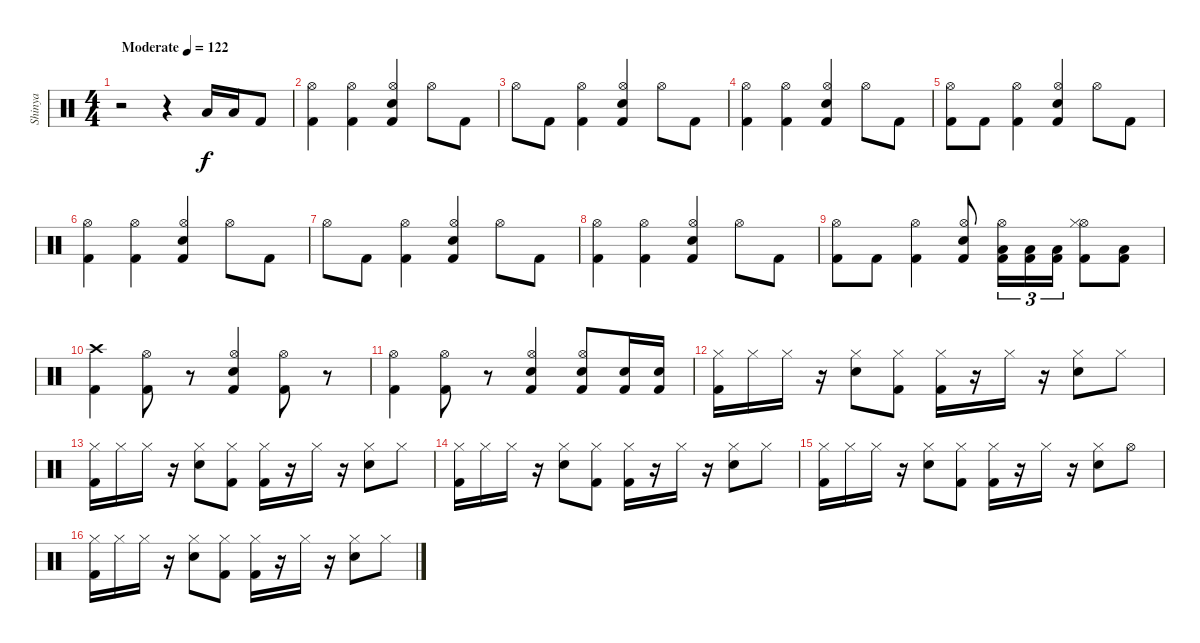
\track ("Shinya" "Shinya") {instrument percussion}
\staff {score}
\articulation defaults
\ts (4 4)
\tempo (122 "Moderate")
\clef neutral
\ks c
r.2{dy f} r.4 "Low Tom (hit)".16 "Low Floor Tom (hit)".16 "Kick (hit) 2".8 |
("Hi-Hat (open)" "Kick (hit) 2").4 ("Hi-Hat (open)" "Kick (hit) 2").4 ("Hi-Hat (open)" "Electric Snare (hit)" "Kick (hit) 2").4 "Hi-Hat (open)".8 "Kick (hit) 2".8 |
"Hi-Hat (open)".8 "Kick (hit) 2".8 ("Hi-Hat (open)" "Kick (hit) 2").4 ("Hi-Hat (open)" "Electric Snare (hit)" "Kick (hit) 2").4 "Hi-Hat (open)".8 "Kick (hit) 2".8 |
("Hi-Hat (open)" "Kick (hit) 2").4 ("Hi-Hat (open)" "Kick (hit) 2").4 ("Hi-Hat (open)" "Electric Snare (hit)" "Kick (hit) 2").4 "Hi-Hat (open)".8 "Kick (hit) 2".8 |
("Hi-Hat (open)" "Kick (hit) 2").8 "Kick (hit) 2".8 ("Hi-Hat (open)" "Kick (hit) 2").4 ("Hi-Hat (open)" "Electric Snare (hit)" "Kick (hit) 2").4 "Hi-Hat (open)".8 "Kick (hit) 2".8 |
("Hi-Hat (open)" "Kick (hit) 2").4 ("Hi-Hat (open)" "Kick (hit) 2").4 ("Hi-Hat (open)" "Electric Snare (hit)" "Kick (hit) 2").4 "Hi-Hat (open)".8 "Kick (hit) 2".8 |
"Hi-Hat (open)".8 "Kick (hit) 2".8 ("Hi-Hat (open)" "Kick (hit) 2").4 ("Hi-Hat (open)" "Electric Snare (hit)" "Kick (hit) 2").4 "Hi-Hat (open)".8 "Kick (hit) 2".8 |
("Hi-Hat (open)" "Kick (hit) 2").4 ("Hi-Hat (open)" "Kick (hit) 2").4 ("Hi-Hat (open)" "Electric Snare (hit)" "Kick (hit) 2").4 "Hi-Hat (open)".8 "Kick (hit) 2".8 |
("Hi-Hat (open)" "Kick (hit) 2").8 "Kick (hit) 2".8 ("Hi-Hat (open)" "Kick (hit) 2").4 ("Hi-Hat (open)" "Electric Snare (hit)" "Kick (hit) 2").8 ("Hi-Hat (open)" "Low Tom (hit)" "Kick (hit) 2").16{tu (3 2)} ("Low Tom (hit)" "Kick (hit) 2").16{tu (3 2)} ("Low Tom (hit)" "Kick (hit) 2").16{tu (3 2)} ("Hi-Hat (open)" "Hi-Hat (closed)" "Kick (hit) 2").8 ("Low Floor Tom (hit)" "Kick (hit) 2").8 |
("Crash high (hit)" "Kick (hit) 2").4 ("Hi-Hat (open)" "Kick (hit) 2").8 r.8 ("Hi-Hat (open)" "Electric Snare (hit)" "Kick (hit) 2").4 ("Hi-Hat (open)" "Kick (hit) 2").8 r.8 |
("Hi-Hat (open)" "Kick (hit) 2").4 ("Hi-Hat (open)" "Kick (hit) 2").8 r.8 ("Hi-Hat (open)" "Electric Snare (hit)" "Kick (hit) 2").4 ("Hi-Hat (open)" "Electric Snare (hit)" "Kick (hit) 2").8 ("Electric Snare (hit)" "Kick (hit) 2").16 ("Electric Snare (hit)" "Kick (hit) 2").16 |
("Hi-Hat (closed)" "Kick (hit) 2").16 "Hi-Hat (closed)".16 "Hi-Hat (closed)".16 r.16 ("Hi-Hat (closed)" "Electric Snare (hit)").8 ("Hi-Hat (closed)" "Kick (hit) 2").8 ("Hi-Hat (closed)" "Kick (hit) 2").16 r.16 "Hi-Hat (closed)".16 r.16 ("Hi-Hat (closed)" "Electric Snare (hit)").8 "Hi-Hat (closed)".8 |
("Hi-Hat (closed)" "Kick (hit) 2").16 "Hi-Hat (closed)".16 "Hi-Hat (closed)".16 r.16 ("Hi-Hat (closed)" "Electric Snare (hit)").8 ("Hi-Hat (closed)" "Kick (hit) 2").8 ("Hi-Hat (closed)" "Kick (hit) 2").16 r.16 "Hi-Hat (closed)".16 r.16 ("Hi-Hat (closed)" "Electric Snare (hit)").8 "Hi-Hat (closed)".8 |
("Hi-Hat (closed)" "Kick (hit) 2").16 "Hi-Hat (closed)".16 "Hi-Hat (closed)".16 r.16 ("Hi-Hat (closed)" "Electric Snare (hit)").8 ("Hi-Hat (closed)" "Kick (hit) 2").8 ("Hi-Hat (closed)" "Kick (hit) 2").16 r.16 "Hi-Hat (closed)".16 r.16 ("Hi-Hat (closed)" "Electric Snare (hit)").8 "Hi-Hat (closed)".8 |
("Hi-Hat (closed)" "Kick (hit) 2").16 "Hi-Hat (closed)".16 "Hi-Hat (closed)".16 r.16 ("Hi-Hat (closed)" "Electric Snare (hit)").8 ("Hi-Hat (closed)" "Kick (hit) 2").8 ("Hi-Hat (closed)" "Kick (hit) 2").16 r.16 "Hi-Hat (closed)".16 r.16 ("Hi-Hat (closed)" "Electric Snare (hit)").8 "Hi-Hat (open)".8 |
("Hi-Hat (closed)" "Kick (hit) 2").16 "Hi-Hat (closed)".16 "Hi-Hat (closed)".16 r.16 ("Hi-Hat (closed)" "Electric Snare (hit)").8 ("Hi-Hat (closed)" "Kick (hit) 2").8 ("Hi-Hat (closed)" "Kick (hit) 2").16 r.16 "Hi-Hat (closed)".16 r.16 ("Hi-Hat (closed)" "Electric Snare (hit)").8 "Hi-Hat (closed)".8
